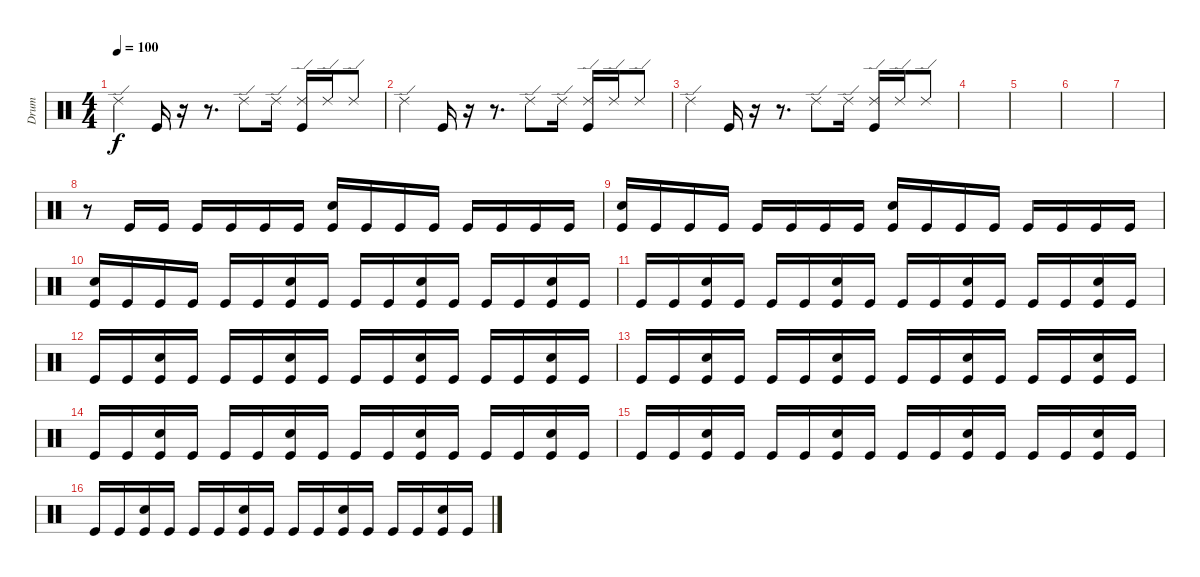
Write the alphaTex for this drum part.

\track ("Drum" "Drum") {instrument percussion}
\staff {score}
\articulation defaults
\ts (4 4)
\tempo 100
\clef neutral
\ks c "Ride (edge) 2".4{dy f} "Kick (hit)".16
r.16 r.8{d} "Ride (edge) 2".8 "Ride (edge) 2".16 ("Ride (edge) 2" "Kick (hit)").16 "Ride (edge) 2".16 "Ride (edge) 2".8 |
"Ride (edge) 2".4 "Kick (hit)".16 r.16 r.8{d} "Ride (edge) 2".8 "Ride (edge) 2".16 ("Ride (edge) 2" "Kick (hit)").16 "Ride (edge) 2".16 "Ride (edge) 2".8 |
"Ride (edge) 2".4 "Kick (hit)".16 r.16 r.8{d} "Ride (edge) 2".8 "Ride (edge) 2".16 ("Ride (edge) 2" "Kick (hit)").16 "Ride (edge) 2".16 "Ride (edge) 2".8 |
|
|
|
|
r.8 "Kick (hit)".16 "Kick (hit)".16 "Kick (hit)".16 "Kick (hit)".16 "Kick (hit)".16 "Kick (hit)".16 ("Snare (hit) 2" "Kick (hit)").16 "Kick (hit)".16 "Kick (hit)".16 "Kick (hit)".16 "Kick (hit)".16 "Kick (hit)".16 "Kick (hit)".16 "Kick (hit)".16 |
("Snare (hit) 2" "Kick (hit)").16 "Kick (hit)".16 "Kick (hit)".16 "Kick (hit)".16 "Kick (hit)".16 "Kick (hit)".16 "Kick (hit)".16 "Kick (hit)".16 ("Snare (hit) 2" "Kick (hit)").16 "Kick (hit)".16 "Kick (hit)".16 "Kick (hit)".16 "Kick (hit)".16 "Kick (hit)".16 "Kick (hit)".16 "Kick (hit)".16 |
("Snare (hit) 2" "Kick (hit)").16 "Kick (hit)".16 "Kick (hit)".16 "Kick (hit)".16 "Kick (hit)".16 "Kick (hit)".16 ("Snare (hit) 2" "Kick (hit)").16 "Kick (hit)".16 "Kick (hit)".16 "Kick (hit)".16 ("Snare (hit) 2" "Kick (hit)").16 "Kick (hit)".16 "Kick (hit)".16 "Kick (hit)".16 ("Snare (hit) 2" "Kick (hit)").16 "Kick (hit)".16 |
"Kick (hit)".16 "Kick (hit)".16 ("Snare (hit) 2" "Kick (hit)").16 "Kick (hit)".16 "Kick (hit)".16 "Kick (hit)".16 ("Snare (hit) 2" "Kick (hit)").16 "Kick (hit)".16 "Kick (hit)".16 "Kick (hit)".16 ("Snare (hit) 2" "Kick (hit)").16 "Kick (hit)".16 "Kick (hit)".16 "Kick (hit)".16 ("Snare (hit) 2" "Kick (hit)").16 "Kick (hit)".16 |
"Kick (hit)".16 "Kick (hit)".16 ("Snare (hit) 2" "Kick (hit)").16 "Kick (hit)".16 "Kick (hit)".16 "Kick (hit)".16 ("Snare (hit) 2" "Kick (hit)").16 "Kick (hit)".16 "Kick (hit)".16 "Kick (hit)".16 ("Snare (hit) 2" "Kick (hit)").16 "Kick (hit)".16 "Kick (hit)".16 "Kick (hit)".16 ("Snare (hit) 2" "Kick (hit)").16 "Kick (hit)".16 |
"Kick (hit)".16 "Kick (hit)".16 ("Snare (hit) 2" "Kick (hit)").16 "Kick (hit)".16 "Kick (hit)".16 "Kick (hit)".16 ("Snare (hit) 2" "Kick (hit)").16 "Kick (hit)".16 "Kick (hit)".16 "Kick (hit)".16 ("Snare (hit) 2" "Kick (hit)").16 "Kick (hit)".16 "Kick (hit)".16 "Kick (hit)".16 ("Snare (hit) 2" "Kick (hit)").16 "Kick (hit)".16 |
"Kick (hit)".16 "Kick (hit)".16 ("Snare (hit) 2" "Kick (hit)").16 "Kick (hit)".16 "Kick (hit)".16 "Kick (hit)".16 ("Snare (hit) 2" "Kick (hit)").16 "Kick (hit)".16 "Kick (hit)".16 "Kick (hit)".16 ("Snare (hit) 2" "Kick (hit)").16 "Kick (hit)".16 "Kick (hit)".16 "Kick (hit)".16 ("Snare (hit) 2" "Kick (hit)").16 "Kick (hit)".16 |
"Kick (hit)".16 "Kick (hit)".16 ("Snare (hit) 2" "Kick (hit)").16 "Kick (hit)".16 "Kick (hit)".16 "Kick (hit)".16 ("Snare (hit) 2" "Kick (hit)").16 "Kick (hit)".16 "Kick (hit)".16 "Kick (hit)".16 ("Snare (hit) 2" "Kick (hit)").16 "Kick (hit)".16 "Kick (hit)".16 "Kick (hit)".16 ("Snare (hit) 2" "Kick (hit)").16 "Kick (hit)".16 |
"Kick (hit)".16 "Kick (hit)".16 ("Snare (hit) 2" "Kick (hit)").16 "Kick (hit)".16 "Kick (hit)".16 "Kick (hit)".16 ("Snare (hit) 2" "Kick (hit)").16 "Kick (hit)".16 "Kick (hit)".16 "Kick (hit)".16 ("Snare (hit) 2" "Kick (hit)").16 "Kick (hit)".16 "Kick (hit)".16 "Kick (hit)".16 ("Snare (hit) 2" "Kick (hit)").16 "Kick (hit)".16
